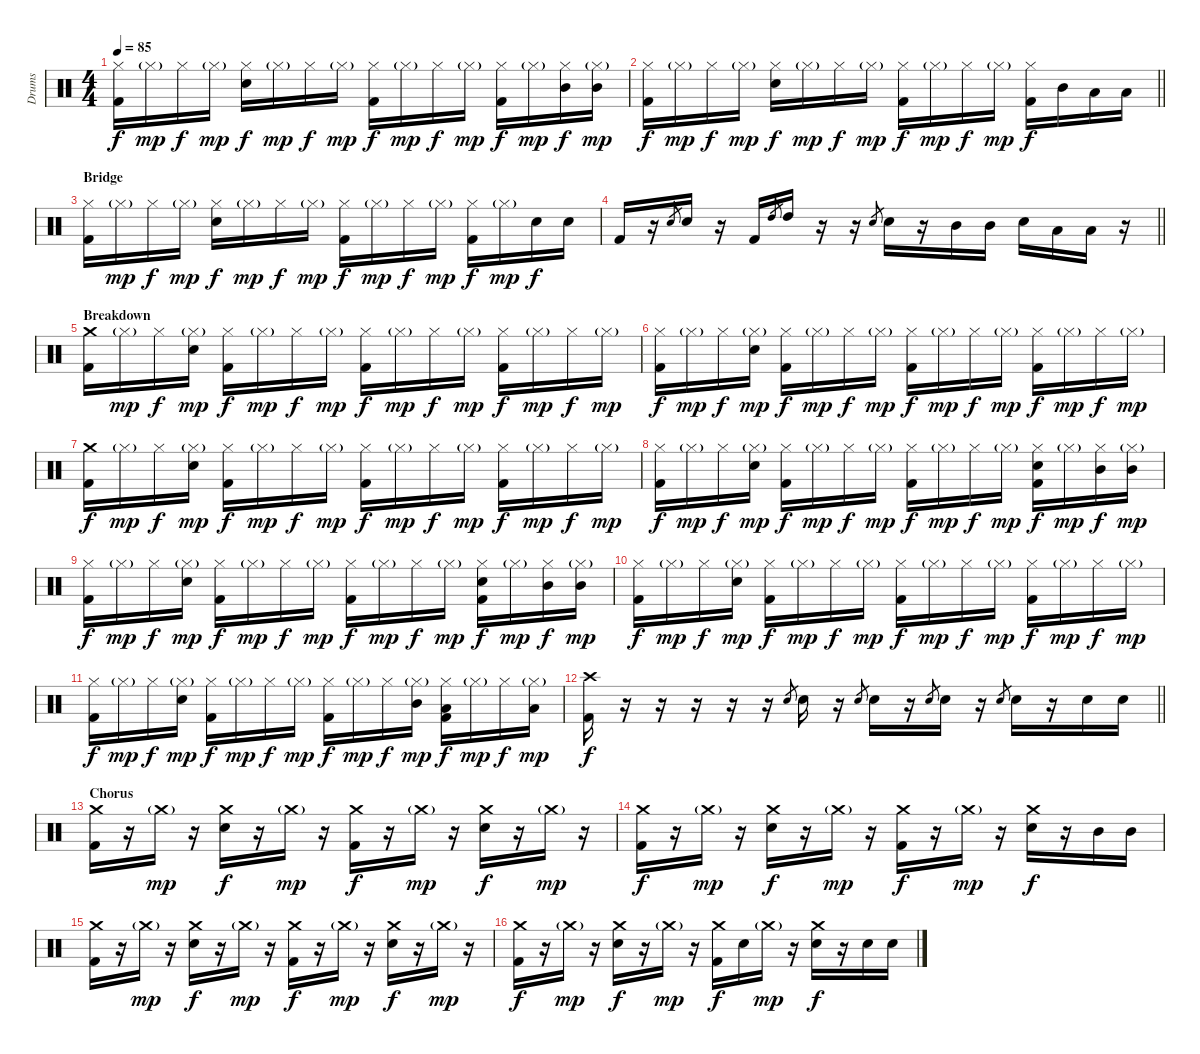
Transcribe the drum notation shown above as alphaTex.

\track ("Drums" "Drums") {instrument percussion}
\staff {score}
\articulation defaults
\ts (4 4)
\tempo 85
\clef neutral
\ks c
("Kick (hit) 2" "Hi-Hat (closed)").16{dy f} "Hi-Hat (closed)"{g}.16{dy mp} "Hi-Hat (closed)".16{dy f} "Hi-Hat (closed)"{g}.16{dy mp} ("Electric Snare (hit)" "Hi-Hat (closed)").16{dy f} "Hi-Hat (closed)"{g}.16{dy mp} "Hi-Hat (closed)".16{dy f} "Hi-Hat (closed)"{g}.16{dy mp} ("Kick (hit) 2" "Hi-Hat (closed)").16{dy f} "Hi-Hat (closed)"{g}.16{dy mp} "Hi-Hat (closed)".16{dy f} "Hi-Hat (closed)"{g}.16{dy mp} ("Kick (hit) 2" "Hi-Hat (closed)").16{dy f} "Hi-Hat (closed)"{g}.16{dy mp} ("Hi-Hat (closed)" "Mid Tom (hit)").16{dy f} ("Hi-Hat (closed)"{g} "Mid Tom (hit)").16{dy mp} |
\barLineRight lightlight
("Kick (hit) 2" "Hi-Hat (closed)").16{dy f} "Hi-Hat (closed)"{g}.16{dy mp} "Hi-Hat (closed)".16{dy f} "Hi-Hat (closed)"{g}.16{dy mp} ("Electric Snare (hit)" "Hi-Hat (closed)").16{dy f} "Hi-Hat (closed)"{g}.16{dy mp} "Hi-Hat (closed)".16{dy f} "Hi-Hat (closed)"{g}.16{dy mp} ("Kick (hit) 2" "Hi-Hat (closed)").16{dy f} "Hi-Hat (closed)"{g}.16{dy mp} "Hi-Hat (closed)".16{dy f} "Hi-Hat (closed)"{g}.16{dy mp} ("Kick (hit) 2" "Hi-Hat (closed)").16{dy f} "Mid Tom (hit)".16 "Low Tom (hit)".16 "Low Tom (hit)".16 |
\section ("" "Bridge")
("Kick (hit) 2" "Hi-Hat (closed)").16 "Hi-Hat (closed)"{g}.16{dy mp} "Hi-Hat (closed)".16{dy f} "Hi-Hat (closed)"{g}.16{dy mp} ("Electric Snare (hit)" "Hi-Hat (closed)").16{dy f} "Hi-Hat (closed)"{g}.16{dy mp} "Hi-Hat (closed)".16{dy f} "Hi-Hat (closed)"{g}.16{dy mp} ("Kick (hit) 2" "Hi-Hat (closed)").16{dy f} "Hi-Hat (closed)"{g}.16{dy mp} "Hi-Hat (closed)".16{dy f} "Hi-Hat (closed)"{g}.16{dy mp} ("Kick (hit) 2" "Hi-Hat (closed)").16{dy f} "Hi-Hat (closed)"{g}.16{dy mp} "Electric Snare (hit)".16{dy f} "Electric Snare (hit)".16 |
\barLineRight lightlight "Kick (hit) 2".16
r.16 "Electric Snare (hit)".8{gr} "Electric Snare (hit)".16 r.16 "Kick (hit) 2".16 "High Tom (hit)".8{gr} "High Tom (hit)".16 r.16 r.16 "Electric Snare (hit)".8{gr} "Electric Snare (hit)".16 r.16 "Mid Tom (hit)".16 "Mid Tom (hit)".16 "Electric Snare (hit)".16 "Low Tom (hit)".16 "Low Tom (hit)".16 r.16 |
\section ("" "Breakdown")
("Kick (hit) 2" "Crash medium (hit)").16 "Hi-Hat (closed)"{g}.16{dy mp} "Hi-Hat (closed)".16{dy f} ("Hi-Hat (closed)"{g} "Electric Snare (hit)").16{dy mp} ("Kick (hit) 2" "Hi-Hat (closed)").16{dy f} "Hi-Hat (closed)"{g}.16{dy mp} "Hi-Hat (closed)".16{dy f} "Hi-Hat (closed)"{g}.16{dy mp} ("Kick (hit) 2" "Hi-Hat (closed)").16{dy f} "Hi-Hat (closed)"{g}.16{dy mp} "Hi-Hat (closed)".16{dy f} "Hi-Hat (closed)"{g}.16{dy mp} ("Kick (hit) 2" "Hi-Hat (closed)").16{dy f} "Hi-Hat (closed)"{g}.16{dy mp} "Hi-Hat (closed)".16{dy f} "Hi-Hat (closed)"{g}.16{dy mp} |
("Kick (hit) 2" "Hi-Hat (closed)").16{dy f} "Hi-Hat (closed)"{g}.16{dy mp} "Hi-Hat (closed)".16{dy f} ("Hi-Hat (closed)"{g} "Electric Snare (hit)").16{dy mp} ("Kick (hit) 2" "Hi-Hat (closed)").16{dy f} "Hi-Hat (closed)"{g}.16{dy mp} "Hi-Hat (closed)".16{dy f} "Hi-Hat (closed)"{g}.16{dy mp} ("Kick (hit) 2" "Hi-Hat (closed)").16{dy f} "Hi-Hat (closed)"{g}.16{dy mp} "Hi-Hat (closed)".16{dy f} "Hi-Hat (closed)"{g}.16{dy mp} ("Kick (hit) 2" "Hi-Hat (closed)").16{dy f} "Hi-Hat (closed)"{g}.16{dy mp} "Hi-Hat (closed)".16{dy f} "Hi-Hat (closed)"{g}.16{dy mp} |
("Kick (hit) 2" "Crash medium (hit)").16{dy f} "Hi-Hat (closed)"{g}.16{dy mp} "Hi-Hat (closed)".16{dy f} ("Hi-Hat (closed)"{g} "Electric Snare (hit)").16{dy mp} ("Kick (hit) 2" "Hi-Hat (closed)").16{dy f} "Hi-Hat (closed)"{g}.16{dy mp} "Hi-Hat (closed)".16{dy f} "Hi-Hat (closed)"{g}.16{dy mp} ("Kick (hit) 2" "Hi-Hat (closed)").16{dy f} "Hi-Hat (closed)"{g}.16{dy mp} "Hi-Hat (closed)".16{dy f} "Hi-Hat (closed)"{g}.16{dy mp} ("Kick (hit) 2" "Hi-Hat (closed)").16{dy f} "Hi-Hat (closed)"{g}.16{dy mp} "Hi-Hat (closed)".16{dy f} "Hi-Hat (closed)"{g}.16{dy mp} |
("Kick (hit) 2" "Hi-Hat (closed)").16{dy f} "Hi-Hat (closed)"{g}.16{dy mp} "Hi-Hat (closed)".16{dy f} ("Hi-Hat (closed)"{g} "Electric Snare (hit)").16{dy mp} ("Kick (hit) 2" "Hi-Hat (closed)").16{dy f} "Hi-Hat (closed)"{g}.16{dy mp} "Hi-Hat (closed)".16{dy f} "Hi-Hat (closed)"{g}.16{dy mp} ("Kick (hit) 2" "Hi-Hat (closed)").16{dy f} "Hi-Hat (closed)"{g}.16{dy mp} "Hi-Hat (closed)".16{dy f} "Hi-Hat (closed)"{g}.16{dy mp} ("Kick (hit) 2" "Hi-Hat (closed)" "Electric Snare (hit)").16{dy f} "Hi-Hat (closed)"{g}.16{dy mp} ("Hi-Hat (closed)" "Mid Tom (hit)").16{dy f} ("Hi-Hat (closed)"{g} "Mid Tom (hit)").16{dy mp} |
("Kick (hit) 2" "Hi-Hat (closed)").16{dy f} "Hi-Hat (closed)"{g}.16{dy mp} "Hi-Hat (closed)".16{dy f} ("Hi-Hat (closed)"{g} "Electric Snare (hit)").16{dy mp} ("Kick (hit) 2" "Hi-Hat (closed)").16{dy f} "Hi-Hat (closed)"{g}.16{dy mp} "Hi-Hat (closed)".16{dy f} "Hi-Hat (closed)"{g}.16{dy mp} ("Kick (hit) 2" "Hi-Hat (closed)").16{dy f} "Hi-Hat (closed)"{g}.16{dy mp} "Hi-Hat (closed)".16{dy f} "Hi-Hat (closed)"{g}.16{dy mp} ("Kick (hit) 2" "Hi-Hat (closed)" "Electric Snare (hit)").16{dy f} "Hi-Hat (closed)"{g}.16{dy mp} ("Hi-Hat (closed)" "Mid Tom (hit)").16{dy f} ("Hi-Hat (closed)"{g} "Mid Tom (hit)").16{dy mp} |
("Kick (hit) 2" "Hi-Hat (closed)").16{dy f} "Hi-Hat (closed)"{g}.16{dy mp} "Hi-Hat (closed)".16{dy f} ("Hi-Hat (closed)"{g} "Electric Snare (hit)").16{dy mp} ("Kick (hit) 2" "Hi-Hat (closed)").16{dy f} "Hi-Hat (closed)"{g}.16{dy mp} "Hi-Hat (closed)".16{dy f} "Hi-Hat (closed)"{g}.16{dy mp} ("Kick (hit) 2" "Hi-Hat (closed)").16{dy f} "Hi-Hat (closed)"{g}.16{dy mp} "Hi-Hat (closed)".16{dy f} "Hi-Hat (closed)"{g}.16{dy mp} ("Kick (hit) 2" "Hi-Hat (closed)").16{dy f} "Hi-Hat (closed)"{g}.16{dy mp} "Hi-Hat (closed)".16{dy f} "Hi-Hat (closed)"{g}.16{dy mp} |
("Kick (hit) 2" "Hi-Hat (closed)").16{dy f} "Hi-Hat (closed)"{g}.16{dy mp} "Hi-Hat (closed)".16{dy f} ("Hi-Hat (closed)"{g} "Electric Snare (hit)").16{dy mp} ("Kick (hit) 2" "Hi-Hat (closed)").16{dy f} "Hi-Hat (closed)"{g}.16{dy mp} "Hi-Hat (closed)".16{dy f} "Hi-Hat (closed)"{g}.16{dy mp} ("Kick (hit) 2" "Hi-Hat (closed)").16{dy f} "Hi-Hat (closed)"{g}.16{dy mp} "Hi-Hat (closed)".16{dy f} ("Hi-Hat (closed)"{g} "Mid Tom (hit)").16{dy mp} ("Kick (hit) 2" "Hi-Hat (closed)" "Low Tom (hit)").16{dy f} "Hi-Hat (closed)"{g}.16{dy mp} "Hi-Hat (closed)".16{dy f} ("Hi-Hat (closed)"{g} "Low Tom (hit)").16{dy mp} |
\barLineRight lightlight
("Kick (hit) 2" "Crash high (hit)").16{dy f} r.16 r.16 r.16 r.16 r.16{volume 6} "Electric Snare (hit)".8{gr} "Electric Snare (hit)".16{volume 14} r.16 "Electric Snare (hit)".8{gr} "Electric Snare (hit)".16 r.16 "Electric Snare (hit)".8{gr} "Electric Snare (hit)".16 r.16 "Electric Snare (hit)".8{gr} "Electric Snare (hit)".16 r.16 "Electric Snare (hit)".16 "Electric Snare (hit)".16 |
\section ("" "Chorus")
("Kick (hit) 2" "Crash medium (hit)").16 r.16 "Crash medium (hit)"{g}.16{dy mp} r.16 ("Electric Snare (hit)" "Crash medium (hit)").16{dy f} r.16 "Crash medium (hit)"{g}.16{dy mp} r.16 ("Kick (hit) 2" "Crash medium (hit)").16{dy f} r.16 "Crash medium (hit)"{g}.16{dy mp} r.16 ("Electric Snare (hit)" "Crash medium (hit)").16{dy f} r.16 "Crash medium (hit)"{g}.16{dy mp} r.16 |
("Kick (hit) 2" "Crash medium (hit)").16{dy f} r.16 "Crash medium (hit)"{g}.16{dy mp} r.16 ("Electric Snare (hit)" "Crash medium (hit)").16{dy f} r.16 "Crash medium (hit)"{g}.16{dy mp} r.16 ("Kick (hit) 2" "Crash medium (hit)").16{dy f} r.16 "Crash medium (hit)"{g}.16{dy mp} r.16 ("Electric Snare (hit)" "Crash medium (hit)").16{dy f} r.16 "Mid Tom (hit)".16 "Mid Tom (hit)".16 |
("Kick (hit) 2" "Crash medium (hit)").16 r.16 "Crash medium (hit)"{g}.16{dy mp} r.16 ("Electric Snare (hit)" "Crash medium (hit)").16{dy f} r.16 "Crash medium (hit)"{g}.16{dy mp} r.16 ("Kick (hit) 2" "Crash medium (hit)").16{dy f} r.16 "Crash medium (hit)"{g}.16{dy mp} r.16 ("Electric Snare (hit)" "Crash medium (hit)").16{dy f} r.16 "Crash medium (hit)"{g}.16{dy mp} r.16 |
("Kick (hit) 2" "Crash medium (hit)").16{dy f} r.16 "Crash medium (hit)"{g}.16{dy mp} r.16 ("Electric Snare (hit)" "Crash medium (hit)").16{dy f} r.16 "Crash medium (hit)"{g}.16{dy mp} r.16 ("Kick (hit) 2" "Crash medium (hit)").16{dy f} "Electric Snare (hit)".16 "Crash medium (hit)"{g}.16{dy mp} r.16 ("Electric Snare (hit)" "Crash medium (hit)").16{dy f} r.16 "Electric Snare (hit)".16 "Electric Snare (hit)".16
